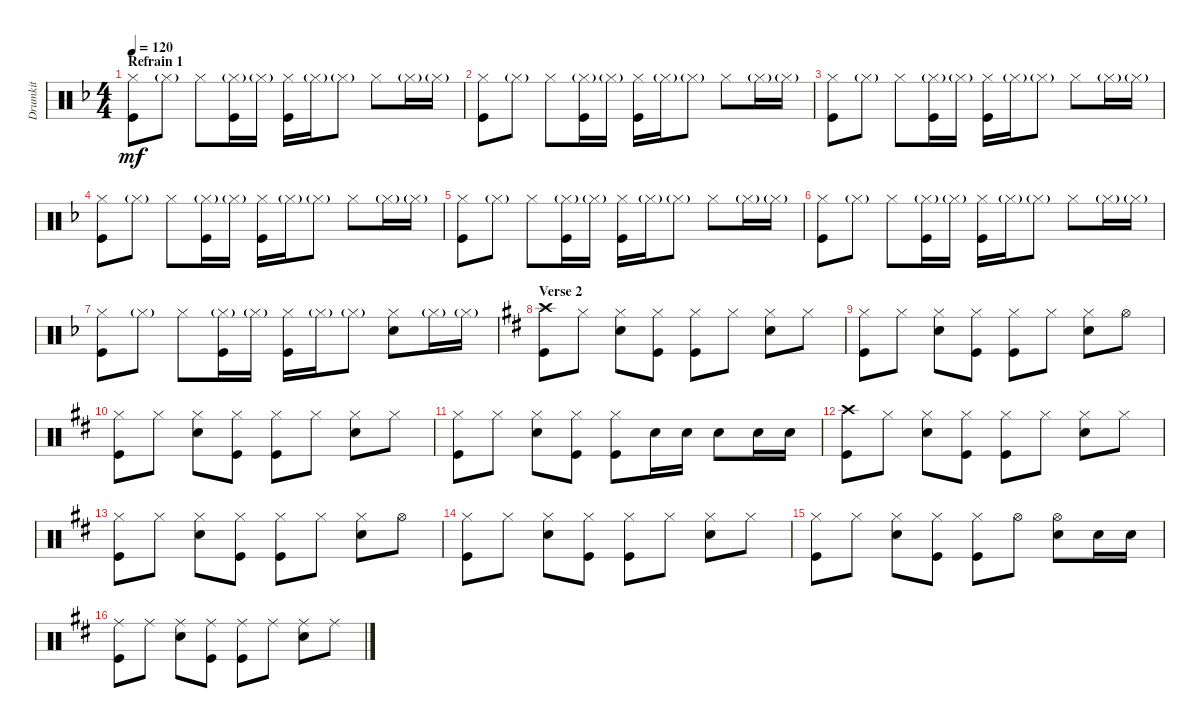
\track ("Drumkit" "Drumkit") {instrument percussion}
\staff {score}
\articulation defaults
\ts (4 4)
\section ("" "Refrain 1")
\tempo 120
\clef neutral
\ks f
("Hi-Hat (closed)" "Kick (hit)").8{dy mf} "Hi-Hat (closed)"{g}.8 "Hi-Hat (closed)".8 ("Hi-Hat (closed)"{g} "Kick (hit)").16 "Hi-Hat (closed)"{g}.16 ("Hi-Hat (closed)" "Kick (hit)").16 "Hi-Hat (closed)"{g}.16 "Hi-Hat (closed)"{g}.8 "Hi-Hat (closed)".8 "Hi-Hat (closed)"{g}.16 "Hi-Hat (closed)"{g}.16 |
("Hi-Hat (closed)" "Kick (hit)").8 "Hi-Hat (closed)"{g}.8 "Hi-Hat (closed)".8 ("Hi-Hat (closed)"{g} "Kick (hit)").16 "Hi-Hat (closed)"{g}.16 ("Hi-Hat (closed)" "Kick (hit)").16 "Hi-Hat (closed)"{g}.16 "Hi-Hat (closed)"{g}.8 "Hi-Hat (closed)".8 "Hi-Hat (closed)"{g}.16 "Hi-Hat (closed)"{g}.16 |
("Hi-Hat (closed)" "Kick (hit)").8 "Hi-Hat (closed)"{g}.8 "Hi-Hat (closed)".8 ("Hi-Hat (closed)"{g} "Kick (hit)").16 "Hi-Hat (closed)"{g}.16 ("Hi-Hat (closed)" "Kick (hit)").16 "Hi-Hat (closed)"{g}.16 "Hi-Hat (closed)"{g}.8 "Hi-Hat (closed)".8 "Hi-Hat (closed)"{g}.16 "Hi-Hat (closed)"{g}.16 |
("Hi-Hat (closed)" "Kick (hit)").8 "Hi-Hat (closed)"{g}.8 "Hi-Hat (closed)".8 ("Hi-Hat (closed)"{g} "Kick (hit)").16 "Hi-Hat (closed)"{g}.16 ("Hi-Hat (closed)" "Kick (hit)").16 "Hi-Hat (closed)"{g}.16 "Hi-Hat (closed)"{g}.8 "Hi-Hat (closed)".8 "Hi-Hat (closed)"{g}.16 "Hi-Hat (closed)"{g}.16 |
("Hi-Hat (closed)" "Kick (hit)").8 "Hi-Hat (closed)"{g}.8 "Hi-Hat (closed)".8 ("Hi-Hat (closed)"{g} "Kick (hit)").16 "Hi-Hat (closed)"{g}.16 ("Hi-Hat (closed)" "Kick (hit)").16 "Hi-Hat (closed)"{g}.16 "Hi-Hat (closed)"{g}.8 "Hi-Hat (closed)".8 "Hi-Hat (closed)"{g}.16 "Hi-Hat (closed)"{g}.16 |
("Hi-Hat (closed)" "Kick (hit)").8 "Hi-Hat (closed)"{g}.8 "Hi-Hat (closed)".8 ("Hi-Hat (closed)"{g} "Kick (hit)").16 "Hi-Hat (closed)"{g}.16 ("Hi-Hat (closed)" "Kick (hit)").16 "Hi-Hat (closed)"{g}.16 "Hi-Hat (closed)"{g}.8 "Hi-Hat (closed)".8 "Hi-Hat (closed)"{g}.16 "Hi-Hat (closed)"{g}.16 |
("Hi-Hat (closed)" "Kick (hit)").8 "Hi-Hat (closed)"{g}.8 "Hi-Hat (closed)".8 ("Hi-Hat (closed)"{g} "Kick (hit)").16 "Hi-Hat (closed)"{g}.16 ("Hi-Hat (closed)" "Kick (hit)").16 "Hi-Hat (closed)"{g}.16 "Hi-Hat (closed)"{g}.8 ("Hi-Hat (closed)" "Snare (hit) 2").8 "Hi-Hat (closed)"{g}.16 "Hi-Hat (closed)"{g}.16 |
\section ("" "Verse 2")
\ks d
("Kick (hit)" "Crash high (hit)").8 "Hi-Hat (closed)".8 ("Hi-Hat (closed)" "Snare (hit) 2").8 ("Hi-Hat (closed)" "Kick (hit)").8 ("Hi-Hat (closed)" "Kick (hit)").8 "Hi-Hat (closed)".8 ("Hi-Hat (closed)" "Snare (hit) 2").8 "Hi-Hat (closed)".8 |
("Kick (hit)" "Hi-Hat (closed)").8 "Hi-Hat (closed)".8 ("Hi-Hat (closed)" "Snare (hit) 2").8 ("Hi-Hat (closed)" "Kick (hit)").8 ("Hi-Hat (closed)" "Kick (hit)").8 "Hi-Hat (closed)".8 ("Hi-Hat (closed)" "Snare (hit) 2").8 "Hi-Hat (open)".8 |
("Kick (hit)" "Hi-Hat (closed)").8 "Hi-Hat (closed)".8 ("Hi-Hat (closed)" "Snare (hit) 2").8 ("Hi-Hat (closed)" "Kick (hit)").8 ("Hi-Hat (closed)" "Kick (hit)").8 "Hi-Hat (closed)".8 ("Hi-Hat (closed)" "Snare (hit) 2").8 "Hi-Hat (closed)".8 |
("Kick (hit)" "Hi-Hat (closed)").8 "Hi-Hat (closed)".8 ("Hi-Hat (closed)" "Snare (hit) 2").8 ("Hi-Hat (closed)" "Kick (hit)").8 ("Hi-Hat (closed)" "Kick (hit)").8 "Snare (hit) 2".16 "Snare (hit) 2".16 "Snare (hit) 2".8 "Snare (hit) 2".16 "Snare (hit) 2".16 |
("Kick (hit)" "Crash high (hit)").8 "Hi-Hat (closed)".8 ("Hi-Hat (closed)" "Snare (hit) 2").8 ("Hi-Hat (closed)" "Kick (hit)").8 ("Hi-Hat (closed)" "Kick (hit)").8 "Hi-Hat (closed)".8 ("Hi-Hat (closed)" "Snare (hit) 2").8 "Hi-Hat (closed)".8 |
("Kick (hit)" "Hi-Hat (closed)").8 "Hi-Hat (closed)".8 ("Hi-Hat (closed)" "Snare (hit) 2").8 ("Hi-Hat (closed)" "Kick (hit)").8 ("Hi-Hat (closed)" "Kick (hit)").8 "Hi-Hat (closed)".8 ("Hi-Hat (closed)" "Snare (hit) 2").8 "Hi-Hat (open)".8 |
("Kick (hit)" "Hi-Hat (closed)").8 "Hi-Hat (closed)".8 ("Hi-Hat (closed)" "Snare (hit) 2").8 ("Hi-Hat (closed)" "Kick (hit)").8 ("Hi-Hat (closed)" "Kick (hit)").8 "Hi-Hat (closed)".8 ("Hi-Hat (closed)" "Snare (hit) 2").8 "Hi-Hat (closed)".8 |
("Kick (hit)" "Hi-Hat (closed)").8 "Hi-Hat (closed)".8 ("Hi-Hat (closed)" "Snare (hit) 2").8 ("Hi-Hat (closed)" "Kick (hit)").8 ("Hi-Hat (closed)" "Kick (hit)").8 "Hi-Hat (open)".8 ("Hi-Hat (open)" "Snare (hit) 2").8 "Snare (hit) 2".16 "Snare (hit) 2".16 |
("Kick (hit)" "Ride (middle)").8 "Ride (middle)".8 ("Snare (hit) 2" "Ride (middle)").8 ("Kick (hit)" "Ride (middle)").8 ("Kick (hit)" "Ride (middle)").8 "Ride (middle)".8 ("Snare (hit) 2" "Ride (middle)").8 "Ride (middle)".8
